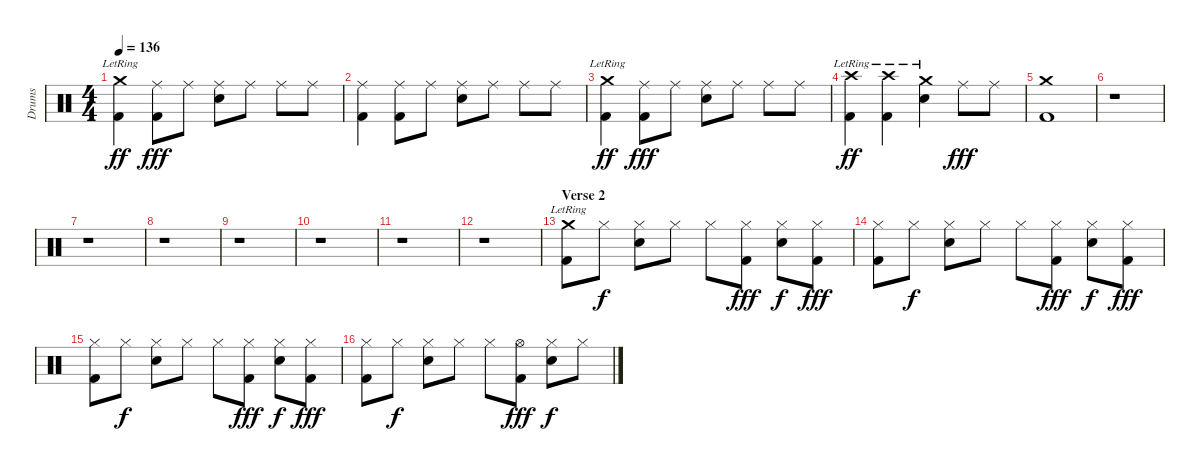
\track ("Drums" "Drums") {instrument percussion}
\staff {score}
\articulation defaults
\ts (4 4)
\tempo 136
\clef neutral
\ks c
("Crash medium (hit)"{lr} "Kick (hit) 2").4{dy ff} ("Ride (middle)" "Kick (hit) 2").8{dy fff} "Ride (middle)".8 ("Ride (middle)" "Snare (hit) 2").8 "Ride (middle)".8 "Ride (middle)".8 "Ride (middle)".8 |
("Ride (middle)" "Kick (hit) 2").4{txt " "} ("Ride (middle)" "Kick (hit) 2").8 "Ride (middle)".8 ("Ride (middle)" "Snare (hit) 2").8 "Ride (middle)".8 "Ride (middle)".8 "Ride (middle)".8 |
("Crash medium (hit)"{lr} "Kick (hit) 2").4{dy ff} ("Ride (middle)" "Kick (hit) 2").8{dy fff} "Ride (middle)".8 ("Ride (middle)" "Snare (hit) 2").8 "Ride (middle)".8{txt " "} "Ride (middle)".8 "Ride (middle)".8 |
("Crash high (hit)"{lr} "Kick (hit) 2").4{dy ff} ("Crash high (hit)"{lr} "Kick (hit) 2").4 ("Crash medium (hit)"{lr} "Snare (hit) 2").4 "Ride (middle)".8{dy fff} "Ride (middle)".8 |
("Crash medium (hit)" "Kick (hit) 2").1 |
r.1 |
r.1 |
r.1 |
r.1 |
r.1 |
r.1 |
r.1 |
\section ("" "Verse 2")
("Crash medium (hit)"{lr} "Kick (hit) 2").8{txt " "} "Hi-Hat (closed)".8{dy f} ("Hi-Hat (closed)" "Snare (hit) 2").8 "Hi-Hat (closed)".8 "Hi-Hat (closed)".8 ("Hi-Hat (closed)" "Kick (hit) 2").8{dy fff} ("Hi-Hat (closed)" "Snare (hit) 2").8{dy f} ("Hi-Hat (closed)" "Kick (hit) 2").8{dy fff} |
("Hi-Hat (closed)" "Kick (hit) 2").8{txt " "} "Hi-Hat (closed)".8{dy f} ("Hi-Hat (closed)" "Snare (hit) 2").8 "Hi-Hat (closed)".8 "Hi-Hat (closed)".8 ("Hi-Hat (closed)" "Kick (hit) 2").8{dy fff} ("Hi-Hat (closed)" "Snare (hit) 2").8{dy f} ("Hi-Hat (closed)" "Kick (hit) 2").8{dy fff} |
("Hi-Hat (closed)" "Kick (hit) 2").8{txt " "} "Hi-Hat (closed)".8{dy f} ("Hi-Hat (closed)" "Snare (hit) 2").8 "Hi-Hat (closed)".8 "Hi-Hat (closed)".8 ("Hi-Hat (closed)" "Kick (hit) 2").8{dy fff} ("Hi-Hat (closed)" "Snare (hit) 2").8{dy f} ("Hi-Hat (closed)" "Kick (hit) 2").8{dy fff} |
("Hi-Hat (closed)" "Kick (hit) 2").8{txt " "} "Hi-Hat (closed)".8{dy f} ("Hi-Hat (closed)" "Snare (hit) 2").8 "Hi-Hat (closed)".8 "Hi-Hat (closed)".8 ("Hi-Hat (open)" "Kick (hit) 2").8{dy fff} ("Hi-Hat (closed)" "Snare (hit) 2").8{dy f} "Hi-Hat (closed)".8
